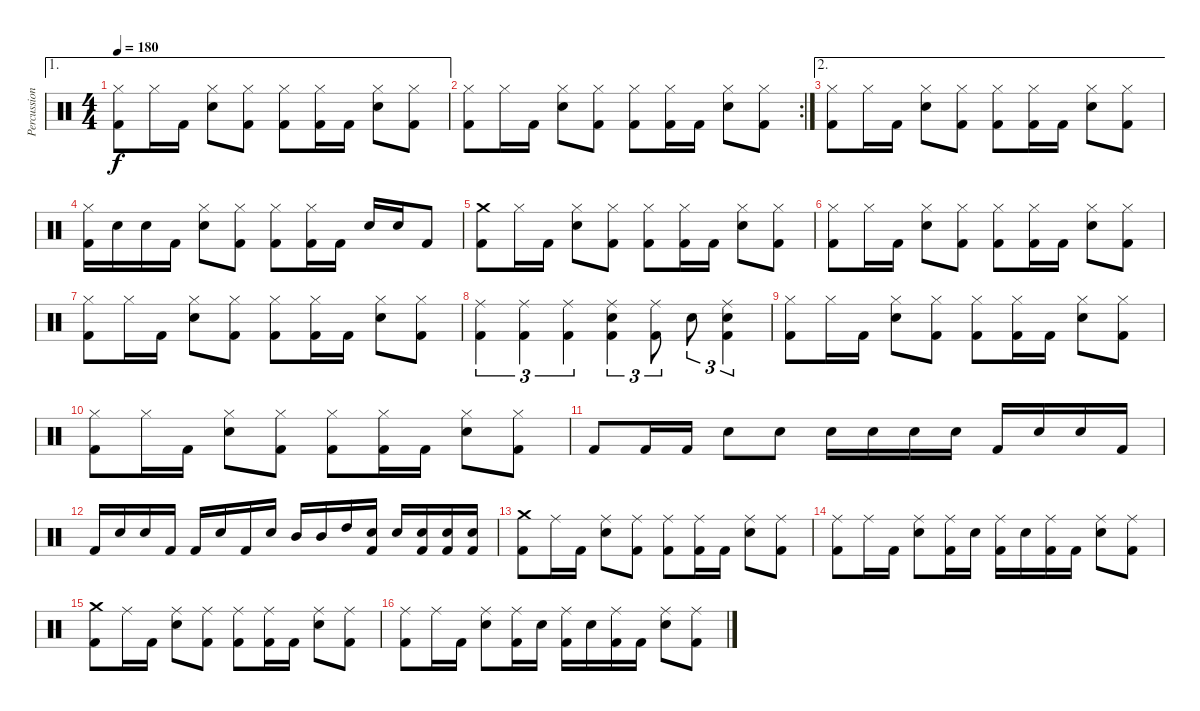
\track ("Percussions" "Percussion") {instrument percussion}
\staff {score}
\articulation defaults
\ae 1
\ts (4 4)
\tempo 180
\clef neutral
\ks c
("Hi-Hat (closed)" "Kick (hit) 2").8{dy f} "Hi-Hat (closed)".16 "Kick (hit) 2".16 ("Hi-Hat (closed)" "Electric Snare (hit)").8 ("Hi-Hat (closed)" "Kick (hit) 2").8 ("Hi-Hat (closed)" "Kick (hit) 2").8 ("Hi-Hat (closed)" "Kick (hit) 2").16 "Kick (hit) 2".16 ("Hi-Hat (closed)" "Electric Snare (hit)").8 ("Hi-Hat (closed)" "Kick (hit) 2").8 |
\rc 2
("Hi-Hat (closed)" "Kick (hit) 2").8 "Hi-Hat (closed)".16 "Kick (hit) 2".16 ("Hi-Hat (closed)" "Electric Snare (hit)").8 ("Hi-Hat (closed)" "Kick (hit) 2").8 ("Hi-Hat (closed)" "Kick (hit) 2").8 ("Hi-Hat (closed)" "Kick (hit) 2").16 "Kick (hit) 2".16 ("Hi-Hat (closed)" "Electric Snare (hit)").8 ("Hi-Hat (closed)" "Kick (hit) 2").8 |
\ae 2
("Hi-Hat (closed)" "Kick (hit) 2").8 "Hi-Hat (closed)".16 "Kick (hit) 2".16 ("Hi-Hat (closed)" "Electric Snare (hit)").8 ("Hi-Hat (closed)" "Kick (hit) 2").8 ("Hi-Hat (closed)" "Kick (hit) 2").8 ("Hi-Hat (closed)" "Kick (hit) 2").16 "Kick (hit) 2".16 ("Hi-Hat (closed)" "Electric Snare (hit)").8 ("Hi-Hat (closed)" "Kick (hit) 2").8 |
("Hi-Hat (closed)" "Kick (hit) 2").16 "Electric Snare (hit)".16 "Electric Snare (hit)".16 "Kick (hit) 2".16 ("Hi-Hat (closed)" "Electric Snare (hit)").8 ("Hi-Hat (closed)" "Kick (hit) 2").8 ("Hi-Hat (closed)" "Kick (hit) 2").8 ("Hi-Hat (closed)" "Kick (hit) 2").16 "Kick (hit) 2".16 "Electric Snare (hit)".16 "Electric Snare (hit)".16 "Kick (hit) 2".8 |
("Crash medium (hit)" "Kick (hit) 2").8 "Hi-Hat (closed)".16 "Kick (hit) 2".16 ("Hi-Hat (closed)" "Electric Snare (hit)").8 ("Hi-Hat (closed)" "Kick (hit) 2").8 ("Hi-Hat (closed)" "Kick (hit) 2").8 ("Hi-Hat (closed)" "Kick (hit) 2").16 "Kick (hit) 2".16 ("Hi-Hat (closed)" "Electric Snare (hit)").8 ("Hi-Hat (closed)" "Kick (hit) 2").8 |
("Hi-Hat (closed)" "Kick (hit) 2").8 "Hi-Hat (closed)".16 "Kick (hit) 2".16 ("Hi-Hat (closed)" "Electric Snare (hit)").8 ("Hi-Hat (closed)" "Kick (hit) 2").8 ("Hi-Hat (closed)" "Kick (hit) 2").8 ("Hi-Hat (closed)" "Kick (hit) 2").16 "Kick (hit) 2".16 ("Hi-Hat (closed)" "Electric Snare (hit)").8 ("Hi-Hat (closed)" "Kick (hit) 2").8 |
("Hi-Hat (closed)" "Kick (hit) 2").8 "Hi-Hat (closed)".16 "Kick (hit) 2".16 ("Hi-Hat (closed)" "Electric Snare (hit)").8 ("Hi-Hat (closed)" "Kick (hit) 2").8 ("Hi-Hat (closed)" "Kick (hit) 2").8 ("Hi-Hat (closed)" "Kick (hit) 2").16 "Kick (hit) 2".16 ("Hi-Hat (closed)" "Electric Snare (hit)").8 ("Hi-Hat (closed)" "Kick (hit) 2").8 |
("Ride (middle)" "Kick (hit) 2").4{tu (3 2)} ("Ride (middle)" "Kick (hit) 2").4{tu (3 2)} ("Ride (middle)" "Kick (hit) 2").4{tu (3 2)} ("Ride (middle)" "Electric Snare (hit)" "Kick (hit) 2").4{tu (3 2)} ("Ride (middle)" "Kick (hit) 2").8{tu (3 2)} "Electric Snare (hit)".8{tu (3 2)} ("Ride (middle)" "Electric Snare (hit)" "Kick (hit) 2").4{tu (3 2)} |
("Hi-Hat (closed)" "Kick (hit) 2").8 "Hi-Hat (closed)".16 "Kick (hit) 2".16 ("Hi-Hat (closed)" "Electric Snare (hit)").8 ("Hi-Hat (closed)" "Kick (hit) 2").8 ("Hi-Hat (closed)" "Kick (hit) 2").8 ("Hi-Hat (closed)" "Kick (hit) 2").16 "Kick (hit) 2".16 ("Hi-Hat (closed)" "Electric Snare (hit)").8 ("Hi-Hat (closed)" "Kick (hit) 2").8 |
("Hi-Hat (closed)" "Kick (hit) 2").8 "Hi-Hat (closed)".16 "Kick (hit) 2".16 ("Hi-Hat (closed)" "Electric Snare (hit)").8 ("Hi-Hat (closed)" "Kick (hit) 2").8 ("Hi-Hat (closed)" "Kick (hit) 2").8 ("Hi-Hat (closed)" "Kick (hit) 2").16 "Kick (hit) 2".16 ("Hi-Hat (closed)" "Electric Snare (hit)").8 ("Hi-Hat (closed)" "Kick (hit) 2").8 |
"Kick (hit) 2".8 "Kick (hit) 2".16 "Kick (hit) 2".16 "Electric Snare (hit)".8 "Electric Snare (hit)".8 "Electric Snare (hit)".16 "Electric Snare (hit)".16 "Electric Snare (hit)".16 "Electric Snare (hit)".16 "Kick (hit) 2".16 "Electric Snare (hit)".16 "Electric Snare (hit)".16 "Kick (hit) 2".16 |
"Kick (hit) 2".16 "Electric Snare (hit)".16 "Electric Snare (hit)".16 "Kick (hit) 2".16 "Kick (hit) 2".16 "Electric Snare (hit)".16 "Kick (hit) 2".16 "Electric Snare (hit)".16 "Mid Tom (hit)".16 "Mid Tom (hit)".16 "High Tom (hit)".16 ("Electric Snare (hit)" "Kick (hit) 2").16 "Electric Snare (hit)".16 ("Electric Snare (hit)" "Kick (hit) 2").16 ("Electric Snare (hit)" "Kick (hit) 2").16 ("Electric Snare (hit)" "Kick (hit) 2").16 |
("Crash medium (hit)" "Kick (hit) 2").8 "Ride (middle)".16 "Kick (hit) 2".16 ("Ride (middle)" "Electric Snare (hit)").8 ("Ride (middle)" "Kick (hit) 2").8 ("Ride (middle)" "Kick (hit) 2").8 ("Ride (middle)" "Kick (hit) 2").16 "Kick (hit) 2".16 ("Ride (middle)" "Electric Snare (hit)").8 ("Ride (middle)" "Kick (hit) 2").8 |
("Ride (middle)" "Kick (hit) 2").8 "Ride (middle)".16 "Kick (hit) 2".16 ("Ride (middle)" "Electric Snare (hit)").8 ("Ride (middle)" "Kick (hit) 2").16 "Electric Snare (hit)".16 ("Ride (middle)" "Kick (hit) 2").16 "Electric Snare (hit)".16 ("Ride (middle)" "Kick (hit) 2").16 "Kick (hit) 2".16 ("Ride (middle)" "Electric Snare (hit)").8 ("Ride (middle)" "Kick (hit) 2").8 |
("Crash medium (hit)" "Kick (hit) 2").8 "Ride (middle)".16 "Kick (hit) 2".16 ("Ride (middle)" "Electric Snare (hit)").8 ("Ride (middle)" "Kick (hit) 2").8 ("Ride (middle)" "Kick (hit) 2").8 ("Ride (middle)" "Kick (hit) 2").16 "Kick (hit) 2".16 ("Ride (middle)" "Electric Snare (hit)").8 ("Ride (middle)" "Kick (hit) 2").8 |
("Ride (middle)" "Kick (hit) 2").8 "Ride (middle)".16 "Kick (hit) 2".16 ("Ride (middle)" "Electric Snare (hit)").8 ("Ride (middle)" "Kick (hit) 2").16 "Electric Snare (hit)".16 ("Ride (middle)" "Kick (hit) 2").16 "Electric Snare (hit)".16 ("Ride (middle)" "Kick (hit) 2").16 "Kick (hit) 2".16 ("Ride (middle)" "Electric Snare (hit)").8 ("Ride (middle)" "Kick (hit) 2").8
